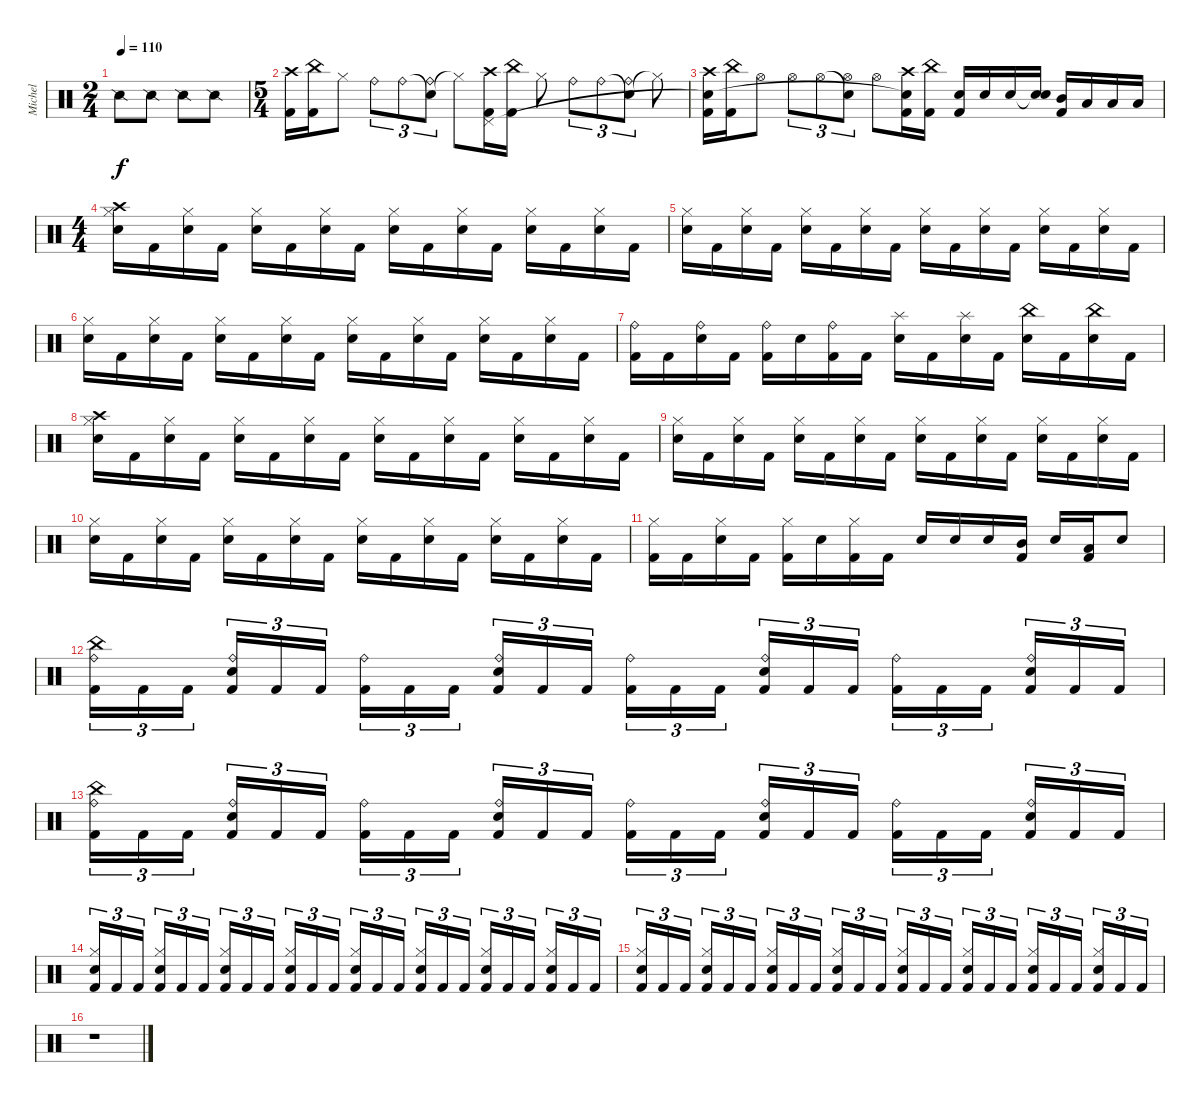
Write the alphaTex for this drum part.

\track ("Michel" "Michel") {instrument percussion}
\staff {score}
\articulation defaults
\ts (2 4)
\tempo 110
\clef neutral
\ks c "Snare (side stick) 2".8{dy f} "Snare (side stick) 2".8 "Snare (side stick) 2".8 "Snare (side stick) 2".8
|
\ts (5 4)
("Crash high (hit)" "Kick (hit) 2").16 ("China (hit)" "Kick (hit) 2").16 "Hi-Hat (closed)".8 "Ride (bell)".8{tu (3 2)} "Ride (bell)".8{tu (3 2)} ("Snare (hit)"{t} "Ride (bell)").8{tu (3 2)} "Hi-Hat (closed)"{t}.8 ("Crash high (hit)" "Kick (hit) 2" "Pedal Hi-Hat (hit)").16 ("China (hit)" "Kick (hit) 2").16 "Hi-Hat (closed)".8 "Ride (bell)".8{tu (3 2)} "Ride (bell)".8{tu (3 2)} ("Snare (hit)"{t} "Ride (bell)").8{tu (3 2)} "Hi-Hat (closed)"{t}.8 |
("Crash high (hit)" "Kick (hit) 2" "Snare (hit)"{t}).16 ("China (hit)" "Kick (hit) 2").16 "Hi-Hat (open)".8 "Hi-Hat (open)".8{tu (3 2)} "Hi-Hat (open)".8{tu (3 2)} ("Snare (hit)"{t} "Hi-Hat (open)").8{tu (3 2)} "Hi-Hat (open)".8 ("Crash high (hit)" "Kick (hit) 2" "Snare (hit)"{t}).16 ("China (hit)" "Kick (hit) 2").16 ("Snare (hit) 2" "Kick (hit) 2").16 "Snare (hit) 2".16 "Snare (hit) 2".16 ("Snare (hit)"{t} "Snare (hit) 2").16 ("Mid Tom (hit)" "Kick (hit) 2").16 "Low Tom (hit)".16 "Low Tom (hit)".16 "Low Tom (hit)".16 |
\ts (4 4)
("Crash high (hit)" "Snare (hit) 2" "Hi-Hat (closed)").16 "Kick (hit) 2".16 ("Snare (hit) 2" "Hi-Hat (closed)").16 "Kick (hit) 2".16 ("Snare (hit) 2" "Hi-Hat (closed)").16 "Kick (hit) 2".16 ("Snare (hit) 2" "Hi-Hat (closed)").16 "Kick (hit) 2".16 ("Snare (hit) 2" "Hi-Hat (closed)").16 "Kick (hit) 2".16 ("Snare (hit) 2" "Hi-Hat (closed)").16 "Kick (hit) 2".16 ("Snare (hit) 2" "Hi-Hat (closed)").16 "Kick (hit) 2".16 ("Snare (hit) 2" "Hi-Hat (closed)").16 "Kick (hit) 2".16 |
("Snare (hit) 2" "Hi-Hat (closed)").16 "Kick (hit) 2".16 ("Snare (hit) 2" "Hi-Hat (closed)").16 "Kick (hit) 2".16 ("Snare (hit) 2" "Hi-Hat (closed)").16 "Kick (hit) 2".16 ("Snare (hit) 2" "Hi-Hat (closed)").16 "Kick (hit) 2".16 ("Snare (hit) 2" "Hi-Hat (closed)").16 "Kick (hit) 2".16 ("Snare (hit) 2" "Hi-Hat (closed)").16 "Kick (hit) 2".16 ("Snare (hit) 2" "Hi-Hat (closed)").16 "Kick (hit) 2".16 ("Snare (hit) 2" "Hi-Hat (closed)").16 "Kick (hit) 2".16 |
("Snare (hit) 2" "Hi-Hat (closed)").16 "Kick (hit) 2".16 ("Snare (hit) 2" "Hi-Hat (closed)").16 "Kick (hit) 2".16 ("Snare (hit) 2" "Hi-Hat (closed)").16 "Kick (hit) 2".16 ("Snare (hit) 2" "Hi-Hat (closed)").16 "Kick (hit) 2".16 ("Snare (hit) 2" "Hi-Hat (closed)").16 "Kick (hit) 2".16 ("Snare (hit) 2" "Hi-Hat (closed)").16 "Kick (hit) 2".16 ("Snare (hit) 2" "Hi-Hat (closed)").16 "Kick (hit) 2".16 ("Snare (hit) 2" "Hi-Hat (closed)").16 "Kick (hit) 2".16 |
("Kick (hit) 2" "Ride (bell)").16 "Kick (hit) 2".16 ("Snare (hit) 2" "Ride (bell)").16 "Kick (hit) 2".16 ("Kick (hit) 2" "Ride (bell)").16 "Snare (hit) 2".16 ("Kick (hit) 2" "Ride (bell)").16 "Kick (hit) 2".16 ("Splash (hit)" "Snare (hit) 2").16 "Kick (hit) 2".16 ("Splash (hit)" "Snare (hit) 2").16 "Kick (hit) 2".16 ("China (hit)" "Snare (hit) 2").16 "Kick (hit) 2".16 ("China (hit)" "Snare (hit) 2").16 "Kick (hit) 2".16 |
("Crash high (hit)" "Snare (hit) 2" "Hi-Hat (closed)").16 "Kick (hit) 2".16 ("Snare (hit) 2" "Hi-Hat (closed)").16 "Kick (hit) 2".16 ("Snare (hit) 2" "Hi-Hat (closed)").16 "Kick (hit) 2".16 ("Snare (hit) 2" "Hi-Hat (closed)").16 "Kick (hit) 2".16 ("Snare (hit) 2" "Hi-Hat (closed)").16 "Kick (hit) 2".16 ("Snare (hit) 2" "Hi-Hat (closed)").16 "Kick (hit) 2".16 ("Snare (hit) 2" "Hi-Hat (closed)").16 "Kick (hit) 2".16 ("Snare (hit) 2" "Hi-Hat (closed)").16 "Kick (hit) 2".16 |
("Snare (hit) 2" "Hi-Hat (closed)").16 "Kick (hit) 2".16 ("Snare (hit) 2" "Hi-Hat (closed)").16 "Kick (hit) 2".16 ("Snare (hit) 2" "Hi-Hat (closed)").16 "Kick (hit) 2".16 ("Snare (hit) 2" "Hi-Hat (closed)").16 "Kick (hit) 2".16 ("Snare (hit) 2" "Hi-Hat (closed)").16 "Kick (hit) 2".16 ("Snare (hit) 2" "Hi-Hat (closed)").16 "Kick (hit) 2".16 ("Snare (hit) 2" "Hi-Hat (closed)").16 "Kick (hit) 2".16 ("Snare (hit) 2" "Hi-Hat (closed)").16 "Kick (hit) 2".16 |
("Snare (hit) 2" "Hi-Hat (closed)").16 "Kick (hit) 2".16 ("Snare (hit) 2" "Hi-Hat (closed)").16 "Kick (hit) 2".16 ("Snare (hit) 2" "Hi-Hat (closed)").16 "Kick (hit) 2".16 ("Snare (hit) 2" "Hi-Hat (closed)").16 "Kick (hit) 2".16 ("Snare (hit) 2" "Hi-Hat (closed)").16 "Kick (hit) 2".16 ("Snare (hit) 2" "Hi-Hat (closed)").16 "Kick (hit) 2".16 ("Snare (hit) 2" "Hi-Hat (closed)").16 "Kick (hit) 2".16 ("Snare (hit) 2" "Hi-Hat (closed)").16 "Kick (hit) 2".16 |
("Kick (hit) 2" "Hi-Hat (closed)").16 "Kick (hit) 2".16 ("Snare (hit) 2" "Hi-Hat (closed)").16 "Kick (hit) 2".16 ("Kick (hit) 2" "Hi-Hat (closed)").16 "Snare (hit) 2".16 ("Kick (hit) 2" "Hi-Hat (closed)").16 "Kick (hit) 2".16 "Snare (hit) 2".16 "Snare (hit) 2".16 "Snare (hit) 2".16 ("Mid Tom (hit)" "Kick (hit) 2").16 "Snare (hit) 2".16 ("Low Tom (hit)" "Kick (hit) 2").16 "Snare (hit) 2".8 |
("China (hit)" "Kick (hit) 2" "Ride (bell)").16{tu (3 2)} "Kick (hit) 2".16{tu (3 2)} "Kick (hit) 2".16{tu (3 2)} ("Snare (hit) 2" "Kick (hit) 2" "Ride (bell)").16{tu (3 2)} "Kick (hit) 2".16{tu (3 2)} "Kick (hit) 2".16{tu (3 2)} ("Kick (hit) 2" "Ride (bell)").16{tu (3 2)} "Kick (hit) 2".16{tu (3 2)} "Kick (hit) 2".16{tu (3 2)} ("Snare (hit) 2" "Kick (hit) 2" "Ride (bell)").16{tu (3 2)} "Kick (hit) 2".16{tu (3 2)} "Kick (hit) 2".16{tu (3 2)} ("Kick (hit) 2" "Ride (bell)").16{tu (3 2)} "Kick (hit) 2".16{tu (3 2)} "Kick (hit) 2".16{tu (3 2)} ("Snare (hit) 2" "Kick (hit) 2" "Ride (bell)").16{tu (3 2)} "Kick (hit) 2".16{tu (3 2)} "Kick (hit) 2".16{tu (3 2)} ("Kick (hit) 2" "Ride (bell)").16{tu (3 2)} "Kick (hit) 2".16{tu (3 2)} "Kick (hit) 2".16{tu (3 2)} ("Snare (hit) 2" "Kick (hit) 2" "Ride (bell)").16{tu (3 2)} "Kick (hit) 2".16{tu (3 2)} "Kick (hit) 2".16{tu (3 2)} |
("China (hit)" "Kick (hit) 2" "Ride (bell)").16{tu (3 2)} "Kick (hit) 2".16{tu (3 2)} "Kick (hit) 2".16{tu (3 2)} ("Snare (hit) 2" "Kick (hit) 2" "Ride (bell)").16{tu (3 2)} "Kick (hit) 2".16{tu (3 2)} "Kick (hit) 2".16{tu (3 2)} ("Kick (hit) 2" "Ride (bell)").16{tu (3 2)} "Kick (hit) 2".16{tu (3 2)} "Kick (hit) 2".16{tu (3 2)} ("Snare (hit) 2" "Kick (hit) 2" "Ride (bell)").16{tu (3 2)} "Kick (hit) 2".16{tu (3 2)} "Kick (hit) 2".16{tu (3 2)} ("Kick (hit) 2" "Ride (bell)").16{tu (3 2)} "Kick (hit) 2".16{tu (3 2)} "Kick (hit) 2".16{tu (3 2)} ("Snare (hit) 2" "Kick (hit) 2" "Ride (bell)").16{tu (3 2)} "Kick (hit) 2".16{tu (3 2)} "Kick (hit) 2".16{tu (3 2)} ("Kick (hit) 2" "Ride (bell)").16{tu (3 2)} "Kick (hit) 2".16{tu (3 2)} "Kick (hit) 2".16{tu (3 2)} ("Snare (hit) 2" "Kick (hit) 2" "Ride (bell)").16{tu (3 2)} "Kick (hit) 2".16{tu (3 2)} "Kick (hit) 2".16{tu (3 2)} |
("Snare (hit) 2" "Kick (hit) 2" "Hi-Hat (closed)").16{tu (3 2)} "Kick (hit) 2".16{tu (3 2)} "Kick (hit) 2".16{tu (3 2)} ("Snare (hit) 2" "Kick (hit) 2" "Hi-Hat (closed)").16{tu (3 2)} "Kick (hit) 2".16{tu (3 2)} "Kick (hit) 2".16{tu (3 2)} ("Snare (hit) 2" "Kick (hit) 2" "Hi-Hat (closed)").16{tu (3 2)} "Kick (hit) 2".16{tu (3 2)} "Kick (hit) 2".16{tu (3 2)} ("Snare (hit) 2" "Kick (hit) 2" "Hi-Hat (closed)").16{tu (3 2)} "Kick (hit) 2".16{tu (3 2)} "Kick (hit) 2".16{tu (3 2)} ("Snare (hit) 2" "Kick (hit) 2" "Hi-Hat (closed)").16{tu (3 2)} "Kick (hit) 2".16{tu (3 2)} "Kick (hit) 2".16{tu (3 2)} ("Snare (hit) 2" "Kick (hit) 2" "Hi-Hat (closed)").16{tu (3 2)} "Kick (hit) 2".16{tu (3 2)} "Kick (hit) 2".16{tu (3 2)} ("Snare (hit) 2" "Kick (hit) 2" "Hi-Hat (closed)").16{tu (3 2)} "Kick (hit) 2".16{tu (3 2)} "Kick (hit) 2".16{tu (3 2)} ("Snare (hit) 2" "Kick (hit) 2" "Hi-Hat (closed)").16{tu (3 2)} "Kick (hit) 2".16{tu (3 2)} "Kick (hit) 2".16{tu (3 2)} |
("Snare (hit) 2" "Kick (hit) 2" "Hi-Hat (closed)").16{tu (3 2)} "Kick (hit) 2".16{tu (3 2)} "Kick (hit) 2".16{tu (3 2)} ("Snare (hit) 2" "Kick (hit) 2" "Hi-Hat (closed)").16{tu (3 2)} "Kick (hit) 2".16{tu (3 2)} "Kick (hit) 2".16{tu (3 2)} ("Snare (hit) 2" "Kick (hit) 2" "Hi-Hat (closed)").16{tu (3 2)} "Kick (hit) 2".16{tu (3 2)} "Kick (hit) 2".16{tu (3 2)} ("Snare (hit) 2" "Kick (hit) 2" "Hi-Hat (closed)").16{tu (3 2)} "Kick (hit) 2".16{tu (3 2)} "Kick (hit) 2".16{tu (3 2)} ("Snare (hit) 2" "Kick (hit) 2" "Hi-Hat (closed)").16{tu (3 2)} "Kick (hit) 2".16{tu (3 2)} "Kick (hit) 2".16{tu (3 2)} ("Snare (hit) 2" "Kick (hit) 2" "Hi-Hat (closed)").16{tu (3 2)} "Kick (hit) 2".16{tu (3 2)} "Kick (hit) 2".16{tu (3 2)} ("Snare (hit) 2" "Kick (hit) 2" "Hi-Hat (closed)").16{tu (3 2)} "Kick (hit) 2".16{tu (3 2)} "Kick (hit) 2".16{tu (3 2)} ("Snare (hit) 2" "Kick (hit) 2" "Hi-Hat (closed)").16{tu (3 2)} "Kick (hit) 2".16{tu (3 2)} "Kick (hit) 2".16{tu (3 2)} |
r.1
